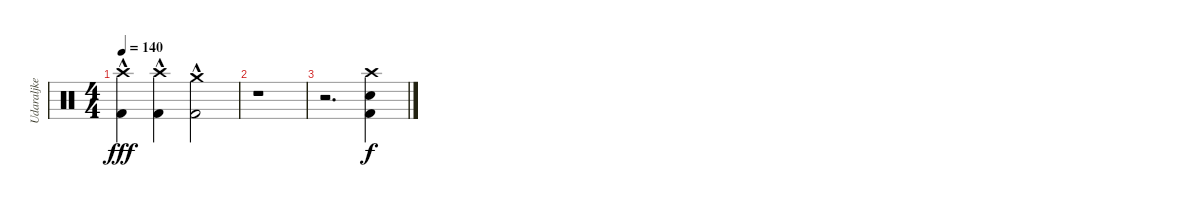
\track ("Udaraljke" "Udaraljke") {instrument percussion}
\staff {score}
\articulation defaults
\ts (4 4)
\tempo 140
\clef neutral
\ks c
("Crash high (hit)" "Kick (hit) 2"{hac}).4{dy fff} ("Crash high (hit)" "Kick (hit) 2"{hac}).4 ("Crash medium (hit)" "Kick (hit) 2"{hac}).2 |
r.1 |
r.2{d} ("Crash high (hit)" "Snare (hit) 2" "Kick (hit) 2").4{dy f}
